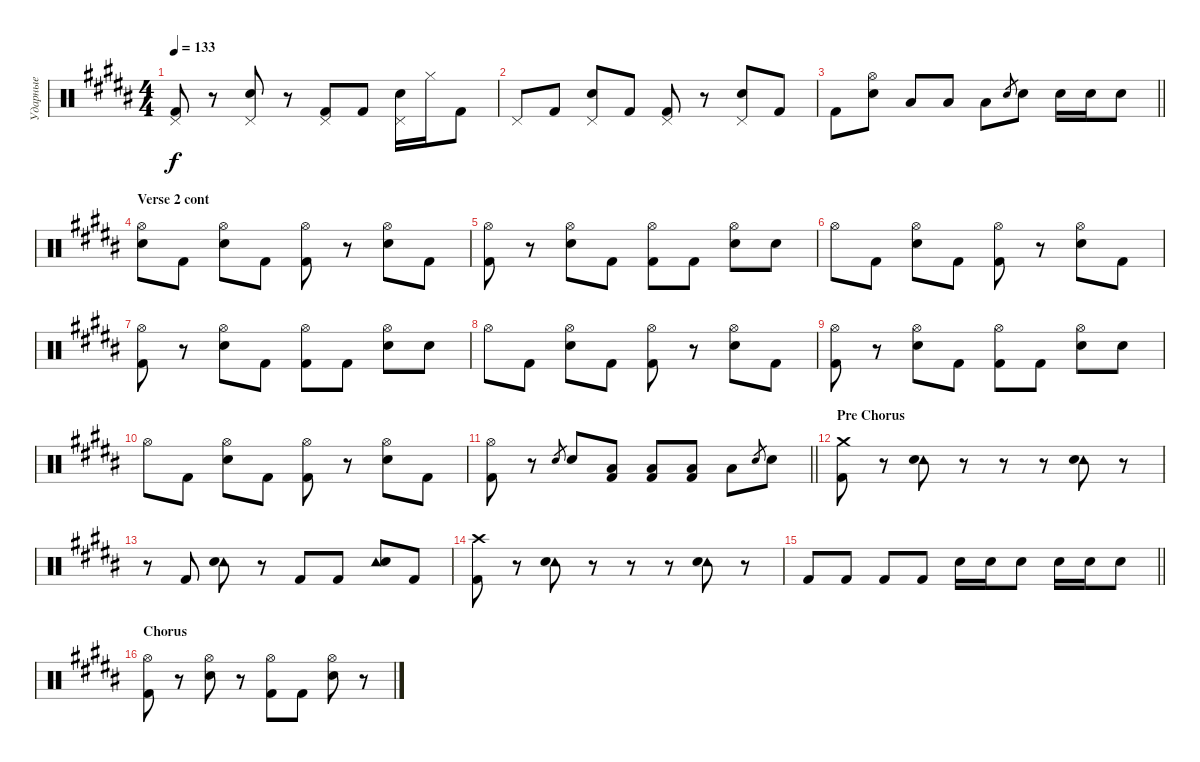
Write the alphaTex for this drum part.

\track ("Ударные" "Ударные") {instrument percussion}
\staff {score}
\articulation defaults
\ts (4 4)
\tempo 133
\clef neutral
\ks b
("Pedal Hi-Hat (hit)" "Kick (hit) 2").8{dy f} r.8 ("Pedal Hi-Hat (hit)" "Electric Snare (hit)").8 r.8 ("Pedal Hi-Hat (hit)" "Kick (hit) 2").8 "Kick (hit) 2".8 ("Pedal Hi-Hat (hit)" "Electric Snare (hit)").16 "Hi-Hat (closed)".16 "Kick (hit) 2".8 |
"Pedal Hi-Hat (hit)".8 "Kick (hit) 2".8 ("Pedal Hi-Hat (hit)" "Electric Snare (hit)").8 "Kick (hit) 2".8 ("Pedal Hi-Hat (hit)" "Kick (hit) 2").8 r.8 ("Pedal Hi-Hat (hit)" "Electric Snare (hit)").8 "Kick (hit) 2".8 |
\barLineRight lightlight "Kick (hit) 2".8
("Hi-Hat (open)" "Electric Snare (hit)").8 "Low Tom (hit)".8 "Low Tom (hit)".8 "Low Tom (hit)".8 "Electric Snare (hit)".8{gr} "Electric Snare (hit)".8 "Electric Snare (hit)".16 "Electric Snare (hit)".16 "Electric Snare (hit)".8 |
\section ("" "Verse 2 cont")
("Hi-Hat (open)" "Electric Snare (hit)").8 "Kick (hit) 2".8 ("Hi-Hat (open)" "Electric Snare (hit)").8 "Kick (hit) 2".8 ("Hi-Hat (open)" "Kick (hit) 2").8 r.8 ("Hi-Hat (open)" "Electric Snare (hit)").8 "Kick (hit) 2".8 |
("Hi-Hat (open)" "Kick (hit) 2").8 r.8 ("Hi-Hat (open)" "Electric Snare (hit)").8 "Kick (hit) 2".8 ("Hi-Hat (open)" "Kick (hit) 2").8 "Kick (hit) 2".8 ("Hi-Hat (open)" "Electric Snare (hit)").8 "Electric Snare (hit)".8 |
"Hi-Hat (open)".8 "Kick (hit) 2".8 ("Hi-Hat (open)" "Electric Snare (hit)").8 "Kick (hit) 2".8 ("Hi-Hat (open)" "Kick (hit) 2").8 r.8 ("Hi-Hat (open)" "Electric Snare (hit)").8 "Kick (hit) 2".8 |
("Hi-Hat (open)" "Kick (hit) 2").8 r.8 ("Hi-Hat (open)" "Electric Snare (hit)").8 "Kick (hit) 2".8 ("Hi-Hat (open)" "Kick (hit) 2").8 "Kick (hit) 2".8 ("Hi-Hat (open)" "Electric Snare (hit)").8 "Electric Snare (hit)".8 |
"Hi-Hat (open)".8 "Kick (hit) 2".8 ("Hi-Hat (open)" "Electric Snare (hit)").8 "Kick (hit) 2".8 ("Hi-Hat (open)" "Kick (hit) 2").8 r.8 ("Hi-Hat (open)" "Electric Snare (hit)").8 "Kick (hit) 2".8 |
("Hi-Hat (open)" "Kick (hit) 2").8 r.8 ("Hi-Hat (open)" "Electric Snare (hit)").8 "Kick (hit) 2".8 ("Hi-Hat (open)" "Kick (hit) 2").8 "Kick (hit) 2".8 ("Hi-Hat (open)" "Electric Snare (hit)").8 "Electric Snare (hit)".8 |
"Hi-Hat (open)".8 "Kick (hit) 2".8 ("Hi-Hat (open)" "Electric Snare (hit)").8 "Kick (hit) 2".8 ("Hi-Hat (open)" "Kick (hit) 2").8 r.8 ("Hi-Hat (open)" "Electric Snare (hit)").8 "Kick (hit) 2".8 |
\barLineRight lightlight
("Hi-Hat (open)" "Kick (hit) 2").8 r.8 "Electric Snare (hit)".8{gr} "Electric Snare (hit)".8 ("Low Tom (hit)" "Kick (hit) 2").8 ("Low Tom (hit)" "Kick (hit) 2").8 ("Low Tom (hit)" "Kick (hit) 2").8 "Low Tom (hit)".8 "Electric Snare (hit)".8{gr} "Electric Snare (hit)".8 |
\section ("" "Pre Chorus")
("Crash medium (hit)" "Kick (hit) 2").8 r.8 ("Tambourine (hit)" "Electric Snare (hit)").8 r.8 r.8 r.8 ("Tambourine (hit)" "Electric Snare (hit)").8 r.8 |
r.8 "Kick (hit) 2".8 ("Tambourine (hit)" "Electric Snare (hit)").8 r.8 "Kick (hit) 2".8 "Kick (hit) 2".8 ("Tambourine (hit)" "Electric Snare (hit)").8 "Kick (hit) 2".8 |
("Crash high (hit)" "Kick (hit) 2").8 r.8 ("Tambourine (hit)" "Electric Snare (hit)").8 r.8 r.8 r.8 ("Tambourine (hit)" "Electric Snare (hit)").8 r.8 |
\barLineRight lightlight "Kick (hit) 2".8 "Kick (hit) 2".8 "Kick (hit) 2".8 "Kick (hit) 2".8 "Electric Snare (hit)".16 "Electric Snare (hit)".16 "Electric Snare (hit)".8 "Electric Snare (hit)".16 "Electric Snare (hit)".16 "Electric Snare (hit)".8
|
\section ("" "Chorus")
("Hi-Hat (open)" "Kick (hit) 2").8 r.8 ("Hi-Hat (open)" "Electric Snare (hit)").8 r.8 ("Hi-Hat (open)" "Kick (hit) 2").8 "Kick (hit) 2".8 ("Hi-Hat (open)" "Electric Snare (hit)").8 r.8
